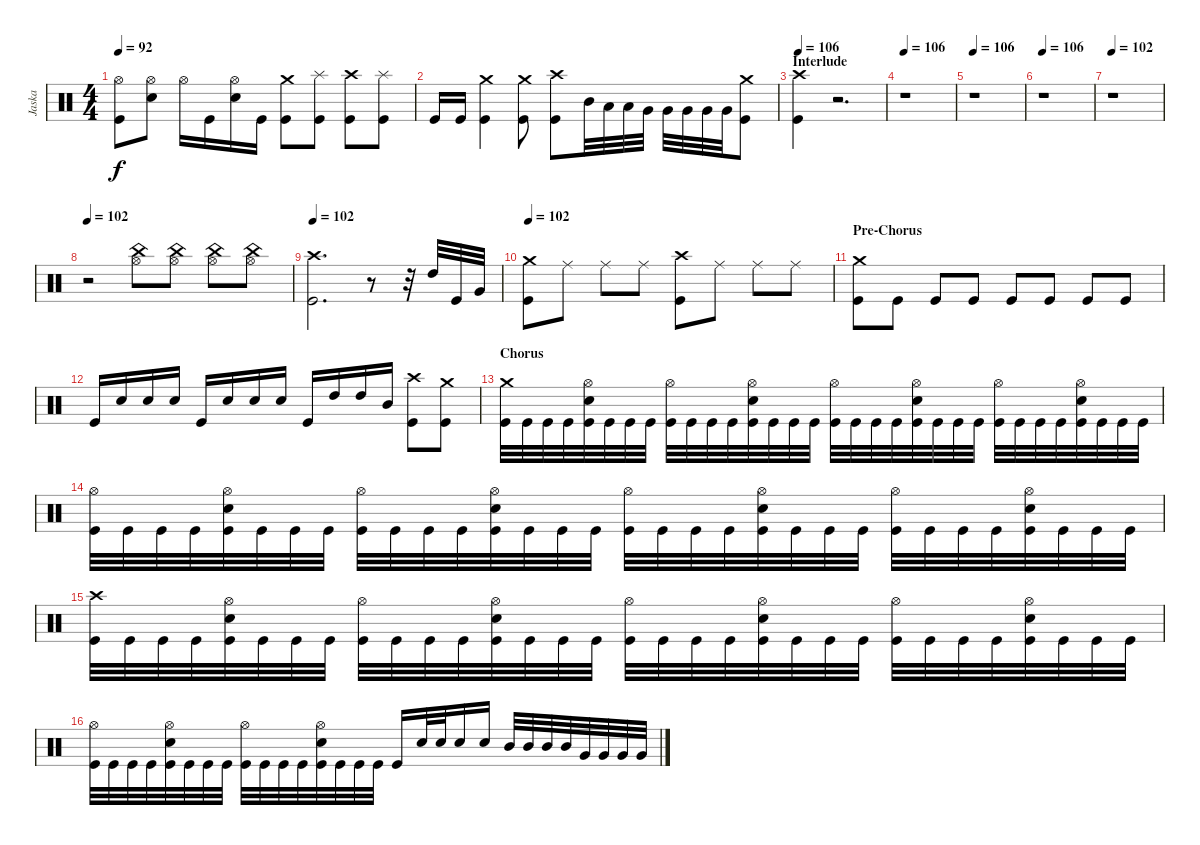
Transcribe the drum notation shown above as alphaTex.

\track ("Jaska" "Jaska") {instrument percussion}
\staff {score}
\articulation defaults
\ts (4 4)
\tempo 92
\clef neutral
\ks c
("Hi-Hat (open)" "Kick (hit)").8{dy f} ("Hi-Hat (open)" "Electric Snare (hit)").8 "Hi-Hat (open)".16 "Kick (hit)".16 ("Hi-Hat (open)" "Electric Snare (hit)").16 "Kick (hit)".16 ("Crash medium (hit)" "Kick (hit)").8 ("Splash (hit)" "Kick (hit)").8 ("Crash high (hit)" "Kick (hit)").8 ("Splash (hit)" "Kick (hit)").8 |
"Kick (hit)".16 "Kick (hit)".16 ("Crash medium (hit)" "Kick (hit)").4 ("Crash medium (hit)" "Kick (hit)").8 ("Crash high (hit)" "Kick (hit)").8 "Mid Tom (hit)".32 "Low Tom (hit)".32 "Low Tom (hit)".32 "Very Low Tom (hit)".32 "Very Low Tom (hit)".32 "Very Low Tom (hit)".32 "Very Low Tom (hit)".32 "Very Low Tom (hit)".32 ("Crash medium (hit)" "Kick (hit)").8 |
\section ("" "Interlude")
\tempo 106
("Crash high (hit)" "Kick (hit)").4 r.2{d} |
\tempo 106
r.1 |
\tempo 106
r.1 |
\tempo 106
r.1 |
\tempo 102
r.1 |
\tempo 102
r.2 ("China (hit)" "Hi-Hat (open)").8 ("China (hit)" "Hi-Hat (open)").8 ("China (hit)" "Hi-Hat (open)").8 ("China (hit)" "Hi-Hat (open)").8 |
\tempo 102
("Crash high (hit)" "Kick (hit)").2{d} r.8 r.32 "High Tom (hit)".32 "Kick (hit)".32 "Very Low Tom (hit)".32 |
\tempo 102
("Crash medium (hit)" "Kick (hit)").8 "Ride (middle)".8 "Ride (middle)".8 "Ride (middle)".8 ("Crash high (hit)" "Kick (hit)").8 "Ride (middle)".8 "Ride (middle)".8 "Ride (middle)".8 |
\section ("" "Pre-Chorus")
("Crash medium (hit)" "Kick (hit)").8 "Kick (hit)".8 "Kick (hit)".8 "Kick (hit)".8 "Kick (hit)".8 "Kick (hit)".8 "Kick (hit)".8 "Kick (hit)".8 |
"Kick (hit)".16 "Electric Snare (hit)".16 "Electric Snare (hit)".16 "Electric Snare (hit)".16 "Kick (hit)".16 "Electric Snare (hit)".16 "Electric Snare (hit)".16 "Electric Snare (hit)".16 "Kick (hit)".16 "High Tom (hit)".16 "High Tom (hit)".16 "Mid Tom (hit)".16 ("Crash high (hit)" "Kick (hit)").8 ("Crash medium (hit)" "Kick (hit)").8 |
\section ("" "Chorus")
("Crash medium (hit)" "Kick (hit)").32 "Kick (hit)".32 "Kick (hit)".32 "Kick (hit)".32 ("Hi-Hat (open)" "Electric Snare (hit)" "Kick (hit)").32 "Kick (hit)".32 "Kick (hit)".32 "Kick (hit)".32 ("Hi-Hat (open)" "Kick (hit)").32 "Kick (hit)".32 "Kick (hit)".32 "Kick (hit)".32 ("Hi-Hat (open)" "Electric Snare (hit)" "Kick (hit)").32 "Kick (hit)".32 "Kick (hit)".32 "Kick (hit)".32 ("Hi-Hat (open)" "Kick (hit)").32 "Kick (hit)".32 "Kick (hit)".32 "Kick (hit)".32 ("Hi-Hat (open)" "Electric Snare (hit)" "Kick (hit)").32 "Kick (hit)".32 "Kick (hit)".32 "Kick (hit)".32 ("Hi-Hat (open)" "Kick (hit)").32 "Kick (hit)".32 "Kick (hit)".32 "Kick (hit)".32 ("Hi-Hat (open)" "Electric Snare (hit)" "Kick (hit)").32 "Kick (hit)".32 "Kick (hit)".32 "Kick (hit)".32 |
("Hi-Hat (open)" "Kick (hit)").32 "Kick (hit)".32 "Kick (hit)".32 "Kick (hit)".32 ("Hi-Hat (open)" "Electric Snare (hit)" "Kick (hit)").32 "Kick (hit)".32 "Kick (hit)".32 "Kick (hit)".32 ("Hi-Hat (open)" "Kick (hit)").32 "Kick (hit)".32 "Kick (hit)".32 "Kick (hit)".32 ("Hi-Hat (open)" "Electric Snare (hit)" "Kick (hit)").32 "Kick (hit)".32 "Kick (hit)".32 "Kick (hit)".32 ("Hi-Hat (open)" "Kick (hit)").32 "Kick (hit)".32 "Kick (hit)".32 "Kick (hit)".32 ("Hi-Hat (open)" "Electric Snare (hit)" "Kick (hit)").32 "Kick (hit)".32 "Kick (hit)".32 "Kick (hit)".32 ("Hi-Hat (open)" "Kick (hit)").32 "Kick (hit)".32 "Kick (hit)".32 "Kick (hit)".32 ("Hi-Hat (open)" "Electric Snare (hit)" "Kick (hit)").32 "Kick (hit)".32 "Kick (hit)".32 "Kick (hit)".32 |
("Crash high (hit)" "Kick (hit)").32 "Kick (hit)".32 "Kick (hit)".32 "Kick (hit)".32 ("Hi-Hat (open)" "Electric Snare (hit)" "Kick (hit)").32 "Kick (hit)".32 "Kick (hit)".32 "Kick (hit)".32 ("Hi-Hat (open)" "Kick (hit)").32 "Kick (hit)".32 "Kick (hit)".32 "Kick (hit)".32 ("Hi-Hat (open)" "Electric Snare (hit)" "Kick (hit)").32 "Kick (hit)".32 "Kick (hit)".32 "Kick (hit)".32 ("Hi-Hat (open)" "Kick (hit)").32 "Kick (hit)".32 "Kick (hit)".32 "Kick (hit)".32 ("Hi-Hat (open)" "Electric Snare (hit)" "Kick (hit)").32 "Kick (hit)".32 "Kick (hit)".32 "Kick (hit)".32 ("Hi-Hat (open)" "Kick (hit)").32 "Kick (hit)".32 "Kick (hit)".32 "Kick (hit)".32 ("Hi-Hat (open)" "Electric Snare (hit)" "Kick (hit)").32 "Kick (hit)".32 "Kick (hit)".32 "Kick (hit)".32 |
("Hi-Hat (open)" "Kick (hit)").32 "Kick (hit)".32 "Kick (hit)".32 "Kick (hit)".32 ("Hi-Hat (open)" "Electric Snare (hit)" "Kick (hit)").32 "Kick (hit)".32 "Kick (hit)".32 "Kick (hit)".32 ("Hi-Hat (open)" "Kick (hit)").32 "Kick (hit)".32 "Kick (hit)".32 "Kick (hit)".32 ("Hi-Hat (open)" "Electric Snare (hit)" "Kick (hit)").32 "Kick (hit)".32 "Kick (hit)".32 "Kick (hit)".32 "Kick (hit)".16 "Electric Snare (hit)".32 "Electric Snare (hit)".32 "Electric Snare (hit)".16 "Electric Snare (hit)".16 "Mid Tom (hit)".32 "Mid Tom (hit)".32 "Mid Tom (hit)".32 "Mid Tom (hit)".32 "Very Low Tom (hit)".32 "Very Low Tom (hit)".32 "Very Low Tom (hit)".32 "Very Low Tom (hit)".32
